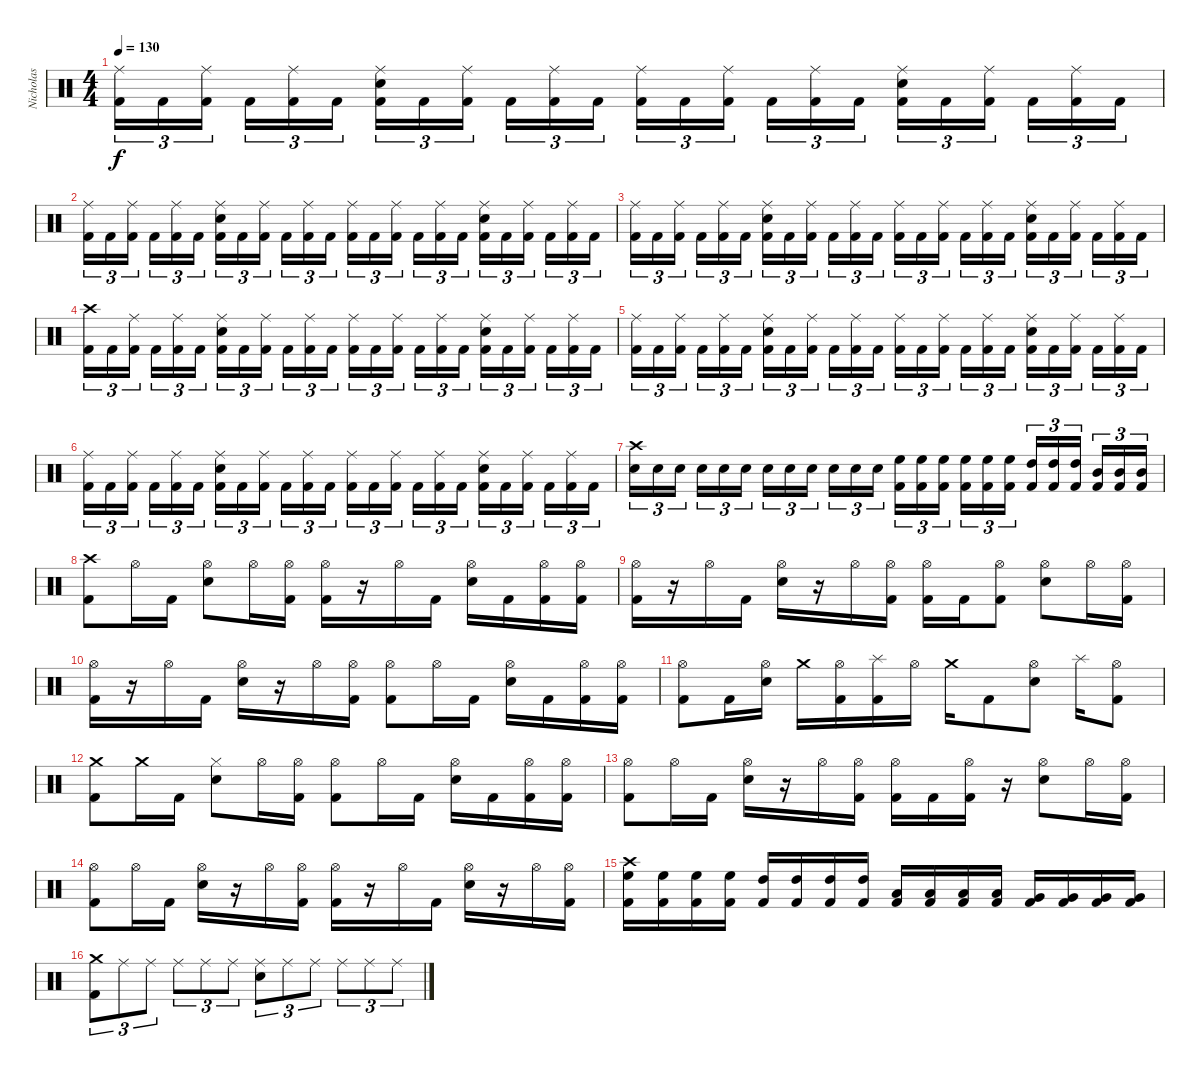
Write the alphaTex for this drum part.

\track ("Nicholas" "Nicholas") {instrument percussion}
\staff {score}
\articulation defaults
\ts (4 4)
\tempo 130
\clef neutral
\ks c
("Ride (middle)" "Kick (hit) 2").16{tu (3 2) dy f} "Kick (hit) 2".16{tu (3 2)} ("Ride (middle)" "Kick (hit) 2").16{tu (3 2) beam splitsecondary} "Kick (hit) 2".16{tu (3 2)} ("Ride (middle)" "Kick (hit) 2").16{tu (3 2)} "Kick (hit) 2".16{tu (3 2)} ("Ride (middle)" "Snare (hit) 2" "Kick (hit) 2").16{tu (3 2)} "Kick (hit) 2".16{tu (3 2)} ("Ride (middle)" "Kick (hit) 2").16{tu (3 2) beam splitsecondary} "Kick (hit) 2".16{tu (3 2)} ("Ride (middle)" "Kick (hit) 2").16{tu (3 2)} "Kick (hit) 2".16{tu (3 2)} ("Ride (middle)" "Kick (hit) 2").16{tu (3 2)} "Kick (hit) 2".16{tu (3 2)} ("Ride (middle)" "Kick (hit) 2").16{tu (3 2) beam splitsecondary} "Kick (hit) 2".16{tu (3 2)} ("Ride (middle)" "Kick (hit) 2").16{tu (3 2)} "Kick (hit) 2".16{tu (3 2)} ("Ride (middle)" "Snare (hit) 2" "Kick (hit) 2").16{tu (3 2)} "Kick (hit) 2".16{tu (3 2)} ("Ride (middle)" "Kick (hit) 2").16{tu (3 2) beam splitsecondary} "Kick (hit) 2".16{tu (3 2)} ("Ride (middle)" "Kick (hit) 2").16{tu (3 2)} "Kick (hit) 2".16{tu (3 2)} |
("Ride (middle)" "Kick (hit) 2").16{tu (3 2)} "Kick (hit) 2".16{tu (3 2)} ("Ride (middle)" "Kick (hit) 2").16{tu (3 2) beam splitsecondary} "Kick (hit) 2".16{tu (3 2)} ("Ride (middle)" "Kick (hit) 2").16{tu (3 2)} "Kick (hit) 2".16{tu (3 2)} ("Ride (middle)" "Snare (hit) 2" "Kick (hit) 2").16{tu (3 2)} "Kick (hit) 2".16{tu (3 2)} ("Ride (middle)" "Kick (hit) 2").16{tu (3 2) beam splitsecondary} "Kick (hit) 2".16{tu (3 2)} ("Ride (middle)" "Kick (hit) 2").16{tu (3 2)} "Kick (hit) 2".16{tu (3 2)} ("Ride (middle)" "Kick (hit) 2").16{tu (3 2)} "Kick (hit) 2".16{tu (3 2)} ("Ride (middle)" "Kick (hit) 2").16{tu (3 2) beam splitsecondary} "Kick (hit) 2".16{tu (3 2)} ("Ride (middle)" "Kick (hit) 2").16{tu (3 2)} "Kick (hit) 2".16{tu (3 2)} ("Ride (middle)" "Snare (hit) 2" "Kick (hit) 2").16{tu (3 2)} "Kick (hit) 2".16{tu (3 2)} ("Ride (middle)" "Kick (hit) 2").16{tu (3 2) beam splitsecondary} "Kick (hit) 2".16{tu (3 2)} ("Ride (middle)" "Kick (hit) 2").16{tu (3 2)} "Kick (hit) 2".16{tu (3 2)} |
("Ride (middle)" "Kick (hit) 2").16{tu (3 2)} "Kick (hit) 2".16{tu (3 2)} ("Ride (middle)" "Kick (hit) 2").16{tu (3 2) beam splitsecondary} "Kick (hit) 2".16{tu (3 2)} ("Ride (middle)" "Kick (hit) 2").16{tu (3 2)} "Kick (hit) 2".16{tu (3 2)} ("Ride (middle)" "Snare (hit) 2" "Kick (hit) 2").16{tu (3 2)} "Kick (hit) 2".16{tu (3 2)} ("Ride (middle)" "Kick (hit) 2").16{tu (3 2) beam splitsecondary} "Kick (hit) 2".16{tu (3 2)} ("Ride (middle)" "Kick (hit) 2").16{tu (3 2)} "Kick (hit) 2".16{tu (3 2)} ("Ride (middle)" "Kick (hit) 2").16{tu (3 2)} "Kick (hit) 2".16{tu (3 2)} ("Ride (middle)" "Kick (hit) 2").16{tu (3 2) beam splitsecondary} "Kick (hit) 2".16{tu (3 2)} ("Ride (middle)" "Kick (hit) 2").16{tu (3 2)} "Kick (hit) 2".16{tu (3 2)} ("Ride (middle)" "Snare (hit) 2" "Kick (hit) 2").16{tu (3 2)} "Kick (hit) 2".16{tu (3 2)} ("Ride (middle)" "Kick (hit) 2").16{tu (3 2) beam splitsecondary} "Kick (hit) 2".16{tu (3 2)} ("Ride (middle)" "Kick (hit) 2").16{tu (3 2)} "Kick (hit) 2".16{tu (3 2)} |
("Crash high (hit)" "Kick (hit) 2").16{tu (3 2)} "Kick (hit) 2".16{tu (3 2)} ("Ride (middle)" "Kick (hit) 2").16{tu (3 2) beam splitsecondary} "Kick (hit) 2".16{tu (3 2)} ("Ride (middle)" "Kick (hit) 2").16{tu (3 2)} "Kick (hit) 2".16{tu (3 2)} ("Ride (middle)" "Snare (hit) 2" "Kick (hit) 2").16{tu (3 2)} "Kick (hit) 2".16{tu (3 2)} ("Ride (middle)" "Kick (hit) 2").16{tu (3 2) beam splitsecondary} "Kick (hit) 2".16{tu (3 2)} ("Ride (middle)" "Kick (hit) 2").16{tu (3 2)} "Kick (hit) 2".16{tu (3 2)} ("Ride (middle)" "Kick (hit) 2").16{tu (3 2)} "Kick (hit) 2".16{tu (3 2)} ("Ride (middle)" "Kick (hit) 2").16{tu (3 2) beam splitsecondary} "Kick (hit) 2".16{tu (3 2)} ("Ride (middle)" "Kick (hit) 2").16{tu (3 2)} "Kick (hit) 2".16{tu (3 2)} ("Ride (middle)" "Snare (hit) 2" "Kick (hit) 2").16{tu (3 2)} "Kick (hit) 2".16{tu (3 2)} ("Ride (middle)" "Kick (hit) 2").16{tu (3 2) beam splitsecondary} "Kick (hit) 2".16{tu (3 2)} ("Ride (middle)" "Kick (hit) 2").16{tu (3 2)} "Kick (hit) 2".16{tu (3 2)} |
("Ride (middle)" "Kick (hit) 2").16{tu (3 2)} "Kick (hit) 2".16{tu (3 2)} ("Ride (middle)" "Kick (hit) 2").16{tu (3 2) beam splitsecondary} "Kick (hit) 2".16{tu (3 2)} ("Ride (middle)" "Kick (hit) 2").16{tu (3 2)} "Kick (hit) 2".16{tu (3 2)} ("Ride (middle)" "Snare (hit) 2" "Kick (hit) 2").16{tu (3 2)} "Kick (hit) 2".16{tu (3 2)} ("Ride (middle)" "Kick (hit) 2").16{tu (3 2) beam splitsecondary} "Kick (hit) 2".16{tu (3 2)} ("Ride (middle)" "Kick (hit) 2").16{tu (3 2)} "Kick (hit) 2".16{tu (3 2)} ("Ride (middle)" "Kick (hit) 2").16{tu (3 2)} "Kick (hit) 2".16{tu (3 2)} ("Ride (middle)" "Kick (hit) 2").16{tu (3 2) beam splitsecondary} "Kick (hit) 2".16{tu (3 2)} ("Ride (middle)" "Kick (hit) 2").16{tu (3 2)} "Kick (hit) 2".16{tu (3 2)} ("Ride (middle)" "Snare (hit) 2" "Kick (hit) 2").16{tu (3 2)} "Kick (hit) 2".16{tu (3 2)} ("Ride (middle)" "Kick (hit) 2").16{tu (3 2) beam splitsecondary} "Kick (hit) 2".16{tu (3 2)} ("Ride (middle)" "Kick (hit) 2").16{tu (3 2)} "Kick (hit) 2".16{tu (3 2)} |
("Ride (middle)" "Kick (hit) 2").16{tu (3 2)} "Kick (hit) 2".16{tu (3 2)} ("Ride (middle)" "Kick (hit) 2").16{tu (3 2) beam splitsecondary} "Kick (hit) 2".16{tu (3 2)} ("Ride (middle)" "Kick (hit) 2").16{tu (3 2)} "Kick (hit) 2".16{tu (3 2)} ("Ride (middle)" "Snare (hit) 2" "Kick (hit) 2").16{tu (3 2)} "Kick (hit) 2".16{tu (3 2)} ("Ride (middle)" "Kick (hit) 2").16{tu (3 2) beam splitsecondary} "Kick (hit) 2".16{tu (3 2)} ("Ride (middle)" "Kick (hit) 2").16{tu (3 2)} "Kick (hit) 2".16{tu (3 2)} ("Ride (middle)" "Kick (hit) 2").16{tu (3 2)} "Kick (hit) 2".16{tu (3 2)} ("Ride (middle)" "Kick (hit) 2").16{tu (3 2) beam splitsecondary} "Kick (hit) 2".16{tu (3 2)} ("Ride (middle)" "Kick (hit) 2").16{tu (3 2)} "Kick (hit) 2".16{tu (3 2)} ("Ride (middle)" "Snare (hit) 2" "Kick (hit) 2").16{tu (3 2)} "Kick (hit) 2".16{tu (3 2)} ("Ride (middle)" "Kick (hit) 2").16{tu (3 2) beam splitsecondary} "Kick (hit) 2".16{tu (3 2)} ("Ride (middle)" "Kick (hit) 2").16{tu (3 2)} "Kick (hit) 2".16{tu (3 2)} |
("Crash high (hit)" "Snare (hit) 2").16{tu (3 2)} "Snare (hit) 2".16{tu (3 2)} "Snare (hit) 2".16{tu (3 2) beam splitsecondary} "Snare (hit) 2".16{tu (3 2)} "Snare (hit) 2".16{tu (3 2)} "Snare (hit) 2".16{tu (3 2)} "Snare (hit) 2".16{tu (3 2)} "Snare (hit) 2".16{tu (3 2)} "Snare (hit) 2".16{tu (3 2) beam splitsecondary} "Snare (hit) 2".16{tu (3 2)} "Snare (hit) 2".16{tu (3 2)} "Snare (hit) 2".16{tu (3 2)} ("High Floor Tom (hit)" "Kick (hit) 2").16{tu (3 2)} ("High Floor Tom (hit)" "Kick (hit) 2").16{tu (3 2)} ("High Floor Tom (hit)" "Kick (hit) 2").16{tu (3 2) beam splitsecondary} ("High Floor Tom (hit)" "Kick (hit) 2").16{tu (3 2)} ("High Floor Tom (hit)" "Kick (hit) 2").16{tu (3 2)} ("High Floor Tom (hit)" "Kick (hit) 2").16{tu (3 2)} ("High Tom (hit)" "Kick (hit) 2").16{tu (3 2)} ("High Tom (hit)" "Kick (hit) 2").16{tu (3 2)} ("High Tom (hit)" "Kick (hit) 2").16{tu (3 2) beam splitsecondary} ("Mid Tom (hit)" "Kick (hit) 2").16{tu (3 2)} ("Mid Tom (hit)" "Kick (hit) 2").16{tu (3 2)} ("Mid Tom (hit)" "Kick (hit) 2").16{tu (3 2)} |
("Crash high (hit)" "Kick (hit) 2").8 "Hi-Hat (open)".16 "Kick (hit) 2".16 ("Hi-Hat (open)" "Snare (hit) 2").8 "Hi-Hat (open)".16 ("Hi-Hat (open)" "Kick (hit) 2").16 ("Hi-Hat (open)" "Kick (hit) 2").16 r.16 "Hi-Hat (open)".16 "Kick (hit) 2".16 ("Hi-Hat (open)" "Snare (hit) 2").16 "Kick (hit) 2".16 ("Hi-Hat (open)" "Kick (hit) 2").16 ("Hi-Hat (open)" "Kick (hit) 2").16 |
("Hi-Hat (open)" "Kick (hit) 2").16 r.16 "Hi-Hat (open)".16 "Kick (hit) 2".16 ("Hi-Hat (open)" "Snare (hit) 2").16 r.16 "Hi-Hat (open)".16 ("Hi-Hat (open)" "Kick (hit) 2").16 ("Hi-Hat (open)" "Kick (hit) 2").16 "Kick (hit) 2".16 ("Hi-Hat (open)" "Kick (hit) 2").8 ("Hi-Hat (open)" "Snare (hit) 2").8 "Hi-Hat (open)".16 ("Hi-Hat (open)" "Kick (hit) 2").16 |
("Hi-Hat (open)" "Kick (hit) 2").16 r.16 "Hi-Hat (open)".16 "Kick (hit) 2".16 ("Hi-Hat (open)" "Snare (hit) 2").16 r.16 "Hi-Hat (open)".16 ("Hi-Hat (open)" "Kick (hit) 2").16 ("Hi-Hat (open)" "Kick (hit) 2").8 "Hi-Hat (open)".16 "Kick (hit) 2".16 ("Hi-Hat (open)" "Snare (hit) 2").16 "Kick (hit) 2".16 ("Hi-Hat (open)" "Kick (hit) 2").16 ("Hi-Hat (open)" "Kick (hit) 2").16 |
("Hi-Hat (open)" "Kick (hit) 2").8 "Kick (hit) 2".16 ("Hi-Hat (open)" "Snare (hit) 2").16 "Crash medium (hit)".16 ("Hi-Hat (open)" "Kick (hit) 2").16 ("Splash (hit)" "Kick (hit) 2").16 "Hi-Hat (open)".16 "Crash medium (hit)".16 "Kick (hit) 2".8 ("Hi-Hat (open)" "Snare (hit) 2").8 "Splash (hit)".16 ("Hi-Hat (open)" "Kick (hit) 2").8 |
("Crash medium (hit)" "Kick (hit) 2").8 "Crash medium (hit)".16 "Kick (hit) 2".16 ("Hi-Hat (closed)" "Snare (hit) 2").8 "Hi-Hat (open)".16 ("Hi-Hat (open)" "Kick (hit) 2").16 ("Hi-Hat (open)" "Kick (hit) 2").8 "Hi-Hat (open)".16 "Kick (hit) 2".16 ("Hi-Hat (open)" "Snare (hit) 2").16 "Kick (hit) 2".16 ("Hi-Hat (open)" "Kick (hit) 2").16 ("Hi-Hat (open)" "Kick (hit) 2").16 |
("Hi-Hat (open)" "Kick (hit) 2").8 "Hi-Hat (open)".16 "Kick (hit) 2".16 ("Hi-Hat (open)" "Snare (hit) 2").16 r.16 "Hi-Hat (open)".16 ("Hi-Hat (open)" "Kick (hit) 2").16 ("Hi-Hat (open)" "Kick (hit) 2").16 "Kick (hit) 2".16 ("Hi-Hat (open)" "Kick (hit) 2").16 r.16 ("Hi-Hat (open)" "Snare (hit) 2").8 "Hi-Hat (open)".16 ("Hi-Hat (open)" "Kick (hit) 2").16 |
("Hi-Hat (open)" "Kick (hit) 2").8 "Hi-Hat (open)".16 "Kick (hit) 2".16 ("Hi-Hat (open)" "Snare (hit) 2").16 r.16 "Hi-Hat (open)".16 ("Hi-Hat (open)" "Kick (hit) 2").16 ("Hi-Hat (open)" "Kick (hit) 2").16 r.16 "Hi-Hat (open)".16 "Kick (hit) 2".16 ("Hi-Hat (open)" "Snare (hit) 2").16 r.16 "Hi-Hat (open)".16 ("Hi-Hat (open)" "Kick (hit) 2").16 |
("Crash high (hit)" "High Floor Tom (hit)" "Kick (hit) 2").16 ("High Floor Tom (hit)" "Kick (hit) 2").16 ("High Floor Tom (hit)" "Kick (hit) 2").16 ("High Floor Tom (hit)" "Kick (hit) 2").16 ("High Tom (hit)" "Kick (hit) 2").16 ("High Tom (hit)" "Kick (hit) 2").16 ("High Tom (hit)" "Kick (hit) 2").16 ("High Tom (hit)" "Kick (hit) 2").16 ("Low Tom (hit)" "Kick (hit) 2").16 ("Low Tom (hit)" "Kick (hit) 2").16 ("Low Tom (hit)" "Kick (hit) 2").16 ("Low Tom (hit)" "Kick (hit) 2").16 ("Very Low Tom (hit)" "Kick (hit) 2").16 ("Very Low Tom (hit)" "Kick (hit) 2").16 ("Very Low Tom (hit)" "Kick (hit) 2").16 ("Very Low Tom (hit)" "Kick (hit) 2").16 |
("Crash medium (hit)" "Kick (hit) 2").8{tu (3 2)} "Ride (middle)".8{tu (3 2)} "Ride (middle)".8{tu (3 2)} "Ride (middle)".8{tu (3 2)} "Ride (middle)".8{tu (3 2)} "Ride (middle)".8{tu (3 2)} ("Ride (middle)" "Snare (hit) 2").8{tu (3 2)} "Ride (middle)".8{tu (3 2)} "Ride (middle)".8{tu (3 2)} "Ride (middle)".8{tu (3 2)} "Ride (middle)".8{tu (3 2)} "Ride (middle)".8{tu (3 2)}
